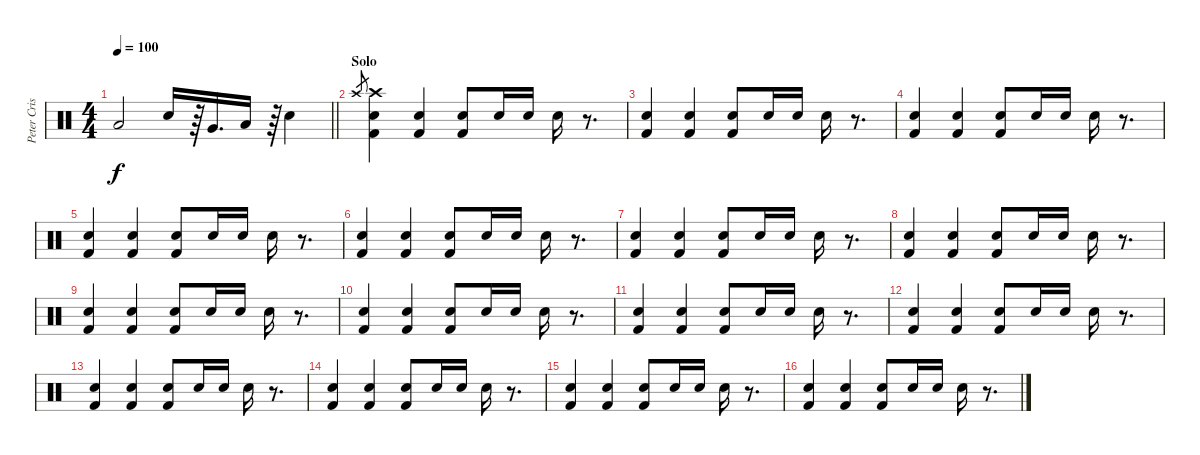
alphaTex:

\track ("Peter Criss" "Peter Cris") {instrument percussion}
\staff {score}
\articulation defaults
\ts (4 4)
\tempo 100
\clef neutral
\barLineRight lightlight
\ks c "Low Floor Tom (hit)".2{dy f} "Electric Snare (hit)".16
r.64 "Very Low Tom (hit)".16{d} "Low Floor Tom (hit)".16 r.64 "Electric Snare (hit)".4 |
\section ("" "Solo")
"Crash high (hit)".8{gr} ("Crash high (hit)" "Snare (hit) 2" "Kick (hit) 2").4 ("Snare (hit) 2" "Kick (hit) 2").4 ("Snare (hit) 2" "Kick (hit) 2").8 "Snare (hit) 2".16 "Snare (hit) 2".16 "Snare (hit) 2".16 r.8{d} |
("Snare (hit) 2" "Kick (hit) 2").4 ("Snare (hit) 2" "Kick (hit) 2").4 ("Snare (hit) 2" "Kick (hit) 2").8 "Snare (hit) 2".16 "Snare (hit) 2".16 "Snare (hit) 2".16 r.8{d} |
("Snare (hit) 2" "Kick (hit) 2").4 ("Snare (hit) 2" "Kick (hit) 2").4 ("Snare (hit) 2" "Kick (hit) 2").8 "Snare (hit) 2".16 "Snare (hit) 2".16 "Snare (hit) 2".16 r.8{d} |
("Snare (hit) 2" "Kick (hit) 2").4 ("Snare (hit) 2" "Kick (hit) 2").4 ("Snare (hit) 2" "Kick (hit) 2").8 "Snare (hit) 2".16 "Snare (hit) 2".16 "Snare (hit) 2".16 r.8{d} |
("Snare (hit) 2" "Kick (hit) 2").4 ("Snare (hit) 2" "Kick (hit) 2").4 ("Snare (hit) 2" "Kick (hit) 2").8 "Snare (hit) 2".16 "Snare (hit) 2".16 "Snare (hit) 2".16 r.8{d} |
("Snare (hit) 2" "Kick (hit) 2").4 ("Snare (hit) 2" "Kick (hit) 2").4 ("Snare (hit) 2" "Kick (hit) 2").8 "Snare (hit) 2".16 "Snare (hit) 2".16 "Snare (hit) 2".16 r.8{d} |
("Snare (hit) 2" "Kick (hit) 2").4 ("Snare (hit) 2" "Kick (hit) 2").4 ("Snare (hit) 2" "Kick (hit) 2").8 "Snare (hit) 2".16 "Snare (hit) 2".16 "Snare (hit) 2".16 r.8{d} |
("Snare (hit) 2" "Kick (hit) 2").4 ("Snare (hit) 2" "Kick (hit) 2").4 ("Snare (hit) 2" "Kick (hit) 2").8 "Snare (hit) 2".16 "Snare (hit) 2".16 "Snare (hit) 2".16 r.8{d} |
("Snare (hit) 2" "Kick (hit) 2").4 ("Snare (hit) 2" "Kick (hit) 2").4 ("Snare (hit) 2" "Kick (hit) 2").8 "Snare (hit) 2".16 "Snare (hit) 2".16 "Snare (hit) 2".16 r.8{d} |
("Snare (hit) 2" "Kick (hit) 2").4 ("Snare (hit) 2" "Kick (hit) 2").4 ("Snare (hit) 2" "Kick (hit) 2").8 "Snare (hit) 2".16 "Snare (hit) 2".16 "Snare (hit) 2".16 r.8{d} |
("Snare (hit) 2" "Kick (hit) 2").4 ("Snare (hit) 2" "Kick (hit) 2").4 ("Snare (hit) 2" "Kick (hit) 2").8 "Snare (hit) 2".16 "Snare (hit) 2".16 "Snare (hit) 2".16 r.8{d} |
("Snare (hit) 2" "Kick (hit) 2").4 ("Snare (hit) 2" "Kick (hit) 2").4 ("Snare (hit) 2" "Kick (hit) 2").8 "Snare (hit) 2".16 "Snare (hit) 2".16 "Snare (hit) 2".16 r.8{d} |
("Snare (hit) 2" "Kick (hit) 2").4 ("Snare (hit) 2" "Kick (hit) 2").4 ("Snare (hit) 2" "Kick (hit) 2").8 "Snare (hit) 2".16 "Snare (hit) 2".16 "Snare (hit) 2".16 r.8{d} |
("Snare (hit) 2" "Kick (hit) 2").4 ("Snare (hit) 2" "Kick (hit) 2").4 ("Snare (hit) 2" "Kick (hit) 2").8 "Snare (hit) 2".16 "Snare (hit) 2".16 "Snare (hit) 2".16 r.8{d} |
("Snare (hit) 2" "Kick (hit) 2").4 ("Snare (hit) 2" "Kick (hit) 2").4 ("Snare (hit) 2" "Kick (hit) 2").8 "Snare (hit) 2".16 "Snare (hit) 2".16 "Snare (hit) 2".16 r.8{d}
